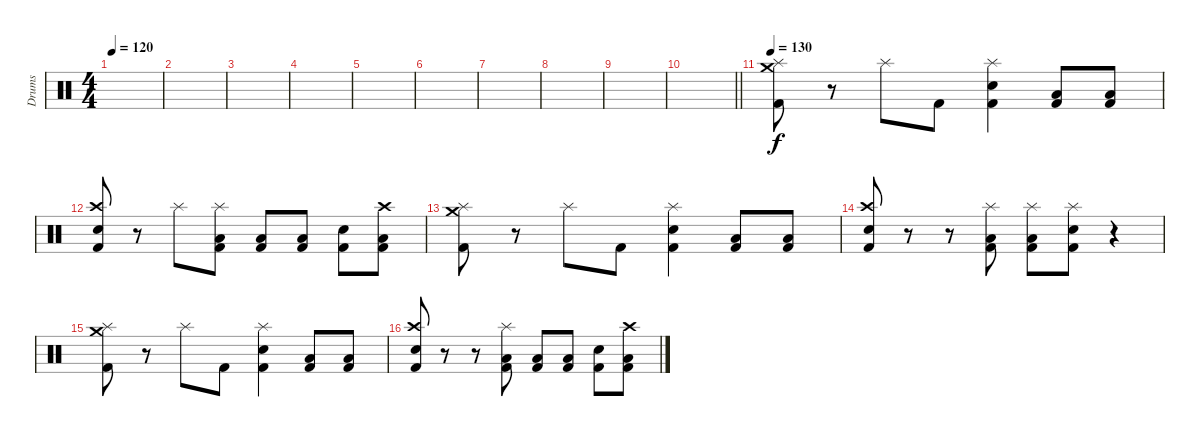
\track ("Drums" "Drums") {instrument percussion}
\staff {score}
\articulation defaults
\ts (4 4)
\tempo 120
\clef neutral
\ks c
|
|
|
|
|
|
|
|
|
\barLineRight lightlight
|
\tempo 130
("Crash medium (hit)" "Splash (hit)" "Kick (hit) 2").8 r.8 "Splash (hit)".8 "Kick (hit) 2".8 ("Splash (hit)" "Electric Snare (hit)" "Kick (hit) 2").4 ("Low Floor Tom (hit)" "Kick (hit) 2").8 ("Low Floor Tom (hit)" "Kick (hit) 2").8 |
("Crash high (hit)" "Snare (hit) 2" "Kick (hit) 2").8 r.8 "Splash (hit)".8 ("Splash (hit)" "Low Floor Tom (hit)" "Kick (hit) 2").8 ("Low Floor Tom (hit)" "Kick (hit) 2").8 ("Low Floor Tom (hit)" "Kick (hit) 2").8 ("Electric Snare (hit)" "Kick (hit) 2").8 ("Crash high (hit)" "Low Floor Tom (hit)" "Kick (hit) 2").8 |
("Crash medium (hit)" "Splash (hit)" "Kick (hit) 2").8 r.8 "Splash (hit)".8 "Kick (hit) 2".8 ("Splash (hit)" "Electric Snare (hit)" "Kick (hit) 2").4 ("Low Floor Tom (hit)" "Kick (hit) 2").8 ("Low Floor Tom (hit)" "Kick (hit) 2").8 |
("Crash high (hit)" "Snare (hit) 2" "Kick (hit) 2").8 r.8 r.8 ("Splash (hit)" "Low Floor Tom (hit)" "Kick (hit) 2").8 ("Splash (hit)" "Low Floor Tom (hit)" "Kick (hit) 2").8 ("Splash (hit)" "Electric Snare (hit)" "Kick (hit) 2").8 r.4 |
("Crash medium (hit)" "Splash (hit)" "Kick (hit) 2").8 r.8 "Splash (hit)".8 "Kick (hit) 2".8 ("Splash (hit)" "Electric Snare (hit)" "Kick (hit) 2").4 ("Low Floor Tom (hit)" "Kick (hit) 2").8 ("Low Floor Tom (hit)" "Kick (hit) 2").8 |
("Crash high (hit)" "Snare (hit) 2" "Kick (hit) 2").8 r.8 r.8 ("Splash (hit)" "Low Floor Tom (hit)" "Kick (hit) 2").8 ("Low Floor Tom (hit)" "Kick (hit) 2").8 ("Low Floor Tom (hit)" "Kick (hit) 2").8 ("Electric Snare (hit)" "Kick (hit) 2").8 ("Crash high (hit)" "Low Floor Tom (hit)" "Kick (hit) 2").8
